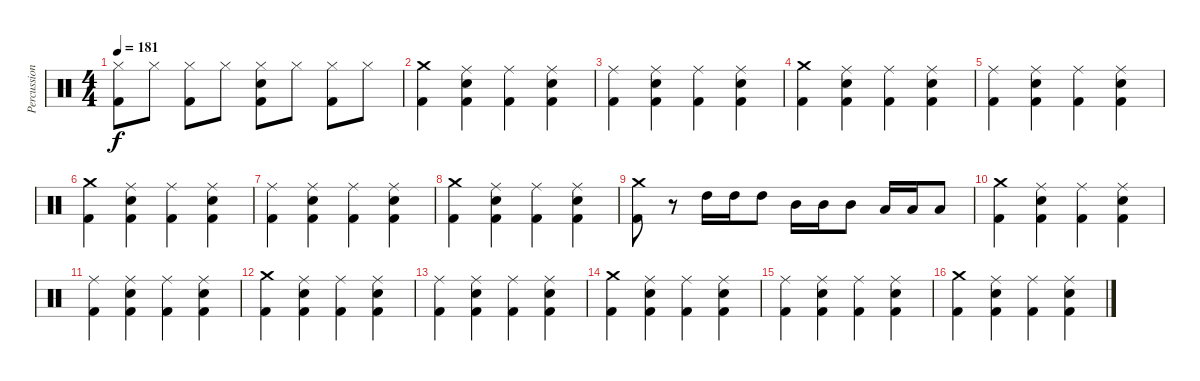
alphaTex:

\track ("Percussion" "Percussion") {instrument percussion}
\staff {score}
\articulation defaults
\ts (4 4)
\tempo 181
\clef neutral
\ks c
("Hi-Hat (closed)" "Kick (hit) 2").8{dy f} "Hi-Hat (closed)".8 ("Hi-Hat (closed)" "Kick (hit) 2").8 "Hi-Hat (closed)".8 ("Hi-Hat (closed)" "Electric Snare (hit)" "Kick (hit) 2").8 "Hi-Hat (closed)".8 ("Hi-Hat (closed)" "Kick (hit) 2").8 "Hi-Hat (closed)".8 |
("Crash medium (hit)" "Kick (hit) 2").4 ("Ride (middle)" "Electric Snare (hit)" "Kick (hit) 2").4 ("Ride (middle)" "Kick (hit) 2").4 ("Ride (middle)" "Electric Snare (hit)" "Kick (hit) 2").4 |
("Ride (middle)" "Kick (hit) 2").4 ("Ride (middle)" "Electric Snare (hit)" "Kick (hit) 2").4 ("Ride (middle)" "Kick (hit) 2").4 ("Ride (middle)" "Electric Snare (hit)" "Kick (hit) 2").4 |
("Crash medium (hit)" "Kick (hit) 2").4 ("Ride (middle)" "Electric Snare (hit)" "Kick (hit) 2").4 ("Ride (middle)" "Kick (hit) 2").4 ("Ride (middle)" "Electric Snare (hit)" "Kick (hit) 2").4 |
("Ride (middle)" "Kick (hit) 2").4 ("Ride (middle)" "Electric Snare (hit)" "Kick (hit) 2").4 ("Ride (middle)" "Kick (hit) 2").4 ("Ride (middle)" "Electric Snare (hit)" "Kick (hit) 2").4 |
("Crash medium (hit)" "Kick (hit) 2").4 ("Ride (middle)" "Electric Snare (hit)" "Kick (hit) 2").4 ("Ride (middle)" "Kick (hit) 2").4 ("Ride (middle)" "Electric Snare (hit)" "Kick (hit) 2").4 |
("Ride (middle)" "Kick (hit) 2").4 ("Ride (middle)" "Electric Snare (hit)" "Kick (hit) 2").4 ("Ride (middle)" "Kick (hit) 2").4 ("Ride (middle)" "Electric Snare (hit)" "Kick (hit) 2").4 |
("Crash medium (hit)" "Kick (hit) 2").4 ("Ride (middle)" "Electric Snare (hit)" "Kick (hit) 2").4 ("Ride (middle)" "Kick (hit) 2").4 ("Ride (middle)" "Electric Snare (hit)" "Kick (hit) 2").4 |
("Crash medium (hit)" "Kick (hit) 2").8 r.8 "High Tom (hit)".16 "High Tom (hit)".16 "High Tom (hit)".8 "Mid Tom (hit)".16 "Mid Tom (hit)".16 "Mid Tom (hit)".8 "Low Tom (hit)".16 "Low Tom (hit)".16 "Low Tom (hit)".8 |
("Crash medium (hit)" "Kick (hit) 2").4 ("Ride (middle)" "Electric Snare (hit)" "Kick (hit) 2").4 ("Ride (middle)" "Kick (hit) 2").4 ("Ride (middle)" "Electric Snare (hit)" "Kick (hit) 2").4 |
("Ride (middle)" "Kick (hit) 2").4 ("Ride (middle)" "Electric Snare (hit)" "Kick (hit) 2").4 ("Ride (middle)" "Kick (hit) 2").4 ("Ride (middle)" "Electric Snare (hit)" "Kick (hit) 2").4 |
("Crash medium (hit)" "Kick (hit) 2").4 ("Ride (middle)" "Electric Snare (hit)" "Kick (hit) 2").4 ("Ride (middle)" "Kick (hit) 2").4 ("Ride (middle)" "Electric Snare (hit)" "Kick (hit) 2").4 |
("Ride (middle)" "Kick (hit) 2").4 ("Ride (middle)" "Electric Snare (hit)" "Kick (hit) 2").4 ("Ride (middle)" "Kick (hit) 2").4 ("Ride (middle)" "Electric Snare (hit)" "Kick (hit) 2").4 |
("Crash medium (hit)" "Kick (hit) 2").4 ("Ride (middle)" "Electric Snare (hit)" "Kick (hit) 2").4 ("Ride (middle)" "Kick (hit) 2").4 ("Ride (middle)" "Electric Snare (hit)" "Kick (hit) 2").4 |
("Ride (middle)" "Kick (hit) 2").4 ("Ride (middle)" "Electric Snare (hit)" "Kick (hit) 2").4 ("Ride (middle)" "Kick (hit) 2").4 ("Ride (middle)" "Electric Snare (hit)" "Kick (hit) 2").4 |
("Crash medium (hit)" "Kick (hit) 2").4 ("Ride (middle)" "Electric Snare (hit)" "Kick (hit) 2").4 ("Ride (middle)" "Kick (hit) 2").4 ("Ride (middle)" "Electric Snare (hit)" "Kick (hit) 2").4
